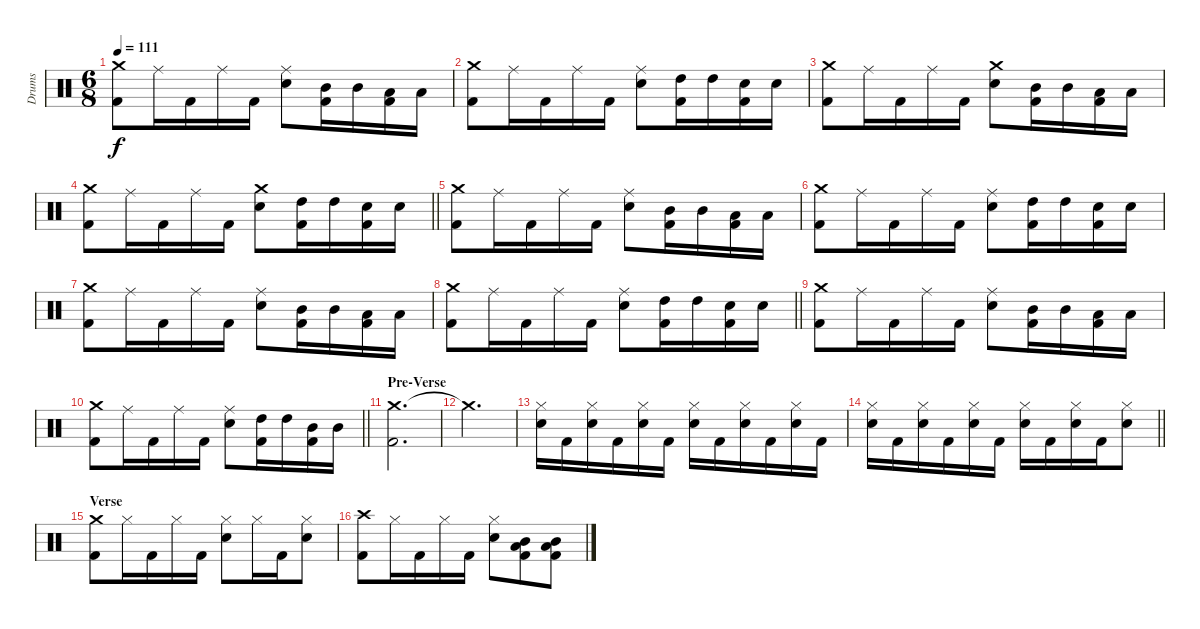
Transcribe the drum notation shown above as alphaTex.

\track ("Drums" "Drums") {instrument percussion}
\staff {score}
\articulation defaults
\ts (6 8)
\tempo 111
\clef neutral
\ks c
("Crash medium (hit)" "Kick (hit) 2").8{dy f} "Ride (middle)".16 "Kick (hit) 2".16 "Ride (middle)".16 "Kick (hit) 2".16 ("Snare (hit) 2" "Ride (middle)").8 ("Kick (hit) 2" "Mid Tom (hit)").16 "Mid Tom (hit)".16 ("Low Tom (hit)" "Kick (hit) 2").16 "Low Tom (hit)".16 |
("Crash medium (hit)" "Kick (hit) 2").8 "Ride (middle)".16 "Kick (hit) 2".16 "Ride (middle)".16 "Kick (hit) 2".16 ("Snare (hit) 2" "Ride (middle)").8 ("Kick (hit) 2" "High Tom (hit)").16 "High Tom (hit)".16 ("Kick (hit) 2" "Snare (hit) 2").16 "Snare (hit) 2".16 |
("Crash medium (hit)" "Kick (hit) 2").8 "Ride (middle)".16 "Kick (hit) 2".16 "Ride (middle)".16 "Kick (hit) 2".16 ("Snare (hit) 2" "Crash medium (hit)").8 ("Kick (hit) 2" "Mid Tom (hit)").16 "Mid Tom (hit)".16 ("Low Tom (hit)" "Kick (hit) 2").16 "Low Tom (hit)".16 |
\barLineRight lightlight
("Crash medium (hit)" "Kick (hit) 2").8 "Ride (middle)".16 "Kick (hit) 2".16 "Ride (middle)".16 "Kick (hit) 2".16 ("Snare (hit) 2" "Crash medium (hit)").8 ("Kick (hit) 2" "High Tom (hit)").16 "High Tom (hit)".16 ("Kick (hit) 2" "Snare (hit) 2").16 "Snare (hit) 2".16 |
("Crash medium (hit)" "Kick (hit) 2").8 "Ride (middle)".16 "Kick (hit) 2".16 "Ride (middle)".16 "Kick (hit) 2".16 ("Snare (hit) 2" "Ride (middle)").8 ("Kick (hit) 2" "Mid Tom (hit)").16 "Mid Tom (hit)".16 ("Low Tom (hit)" "Kick (hit) 2").16 "Low Tom (hit)".16 |
("Crash medium (hit)" "Kick (hit) 2").8 "Ride (middle)".16 "Kick (hit) 2".16 "Ride (middle)".16 "Kick (hit) 2".16 ("Snare (hit) 2" "Ride (middle)").8 ("Kick (hit) 2" "High Tom (hit)").16 "High Tom (hit)".16 ("Kick (hit) 2" "Snare (hit) 2").16 "Snare (hit) 2".16 |
("Crash medium (hit)" "Kick (hit) 2").8 "Ride (middle)".16 "Kick (hit) 2".16 "Ride (middle)".16 "Kick (hit) 2".16 ("Snare (hit) 2" "Ride (middle)").8 ("Kick (hit) 2" "Mid Tom (hit)").16 "Mid Tom (hit)".16 ("Low Tom (hit)" "Kick (hit) 2").16 "Low Tom (hit)".16 |
\barLineRight lightlight
("Crash medium (hit)" "Kick (hit) 2").8 "Ride (middle)".16 "Kick (hit) 2".16 "Ride (middle)".16 "Kick (hit) 2".16 ("Snare (hit) 2" "Ride (middle)").8 ("Kick (hit) 2" "High Tom (hit)").16 "High Tom (hit)".16 ("Kick (hit) 2" "Snare (hit) 2").16 "Snare (hit) 2".16 |
("Crash medium (hit)" "Kick (hit) 2").8 "Ride (middle)".16 "Kick (hit) 2".16 "Ride (middle)".16 "Kick (hit) 2".16 ("Snare (hit) 2" "Ride (middle)").8 ("Kick (hit) 2" "Mid Tom (hit)").16 "Mid Tom (hit)".16 ("Low Tom (hit)" "Kick (hit) 2").16 "Low Tom (hit)".16 |
\barLineRight lightlight
("Crash medium (hit)" "Kick (hit) 2").8 "Ride (middle)".16 "Kick (hit) 2".16 "Ride (middle)".16 "Kick (hit) 2".16 ("Snare (hit) 2" "Ride (middle)").8 ("Kick (hit) 2" "High Tom (hit)").16 "High Tom (hit)".16 ("Mid Tom (hit)" "Kick (hit) 2").16 "Mid Tom (hit)".16 |
\section ("" "Pre-Verse")
("Crash medium (hit)" "Kick (hit) 2").2{d} |
"Crash medium (hit)"{t}.2{d} |
("Hi-Hat (closed)" "Snare (hit) 2").16 "Kick (hit) 2".16 ("Snare (hit) 2" "Hi-Hat (closed)").16 "Kick (hit) 2".16 ("Hi-Hat (closed)" "Snare (hit) 2").16 "Kick (hit) 2".16 ("Snare (hit) 2" "Hi-Hat (closed)").16 "Kick (hit) 2".16 ("Snare (hit) 2" "Hi-Hat (closed)").16 "Kick (hit) 2".16 ("Snare (hit) 2" "Hi-Hat (closed)").16 "Kick (hit) 2".16 |
\barLineRight lightlight
("Hi-Hat (closed)" "Snare (hit) 2").16 "Kick (hit) 2".16 ("Snare (hit) 2" "Hi-Hat (closed)").16 "Kick (hit) 2".16 ("Hi-Hat (closed)" "Snare (hit) 2").16 "Kick (hit) 2".16 ("Snare (hit) 2" "Hi-Hat (closed)").16 "Kick (hit) 2".16 ("Snare (hit) 2" "Hi-Hat (closed)").16 "Kick (hit) 2".16 ("Snare (hit) 2" "Hi-Hat (closed)").8 |
\section ("" "Verse")
("Crash medium (hit)" "Kick (hit) 2").8 "Hi-Hat (closed)".16 "Kick (hit) 2".16 "Hi-Hat (closed)".16 "Kick (hit) 2".16 ("Snare (hit) 2" "Hi-Hat (closed)").8 "Hi-Hat (closed)".16 "Kick (hit) 2".16 ("Hi-Hat (closed)" "Snare (hit) 2").8 |
("Crash high (hit)" "Kick (hit) 2").8 "Hi-Hat (closed)".16 "Kick (hit) 2".16 "Hi-Hat (closed)".16 "Kick (hit) 2".16 ("Hi-Hat (closed)" "Snare (hit) 2").8 ("Low Tom (hit)" "Mid Tom (hit)" "Kick (hit) 2").8 ("Mid Tom (hit)" "Low Tom (hit)" "Kick (hit) 2").8
